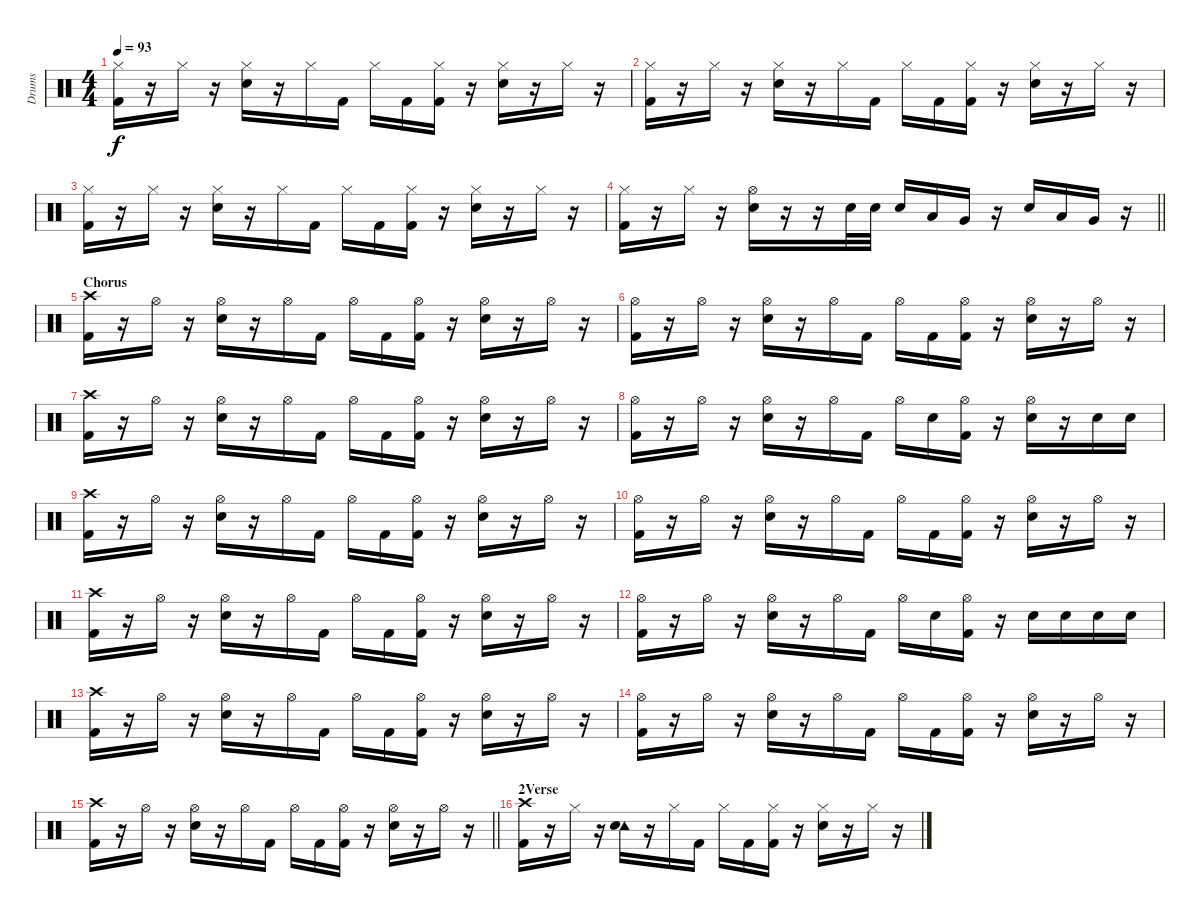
\track ("Drums" "Drums") {instrument percussion}
\staff {score}
\articulation defaults
\ts (4 4)
\tempo 93
\clef neutral
\ks c
("Hi-Hat (closed)" "Kick (hit) 2").16{dy f} r.16 "Hi-Hat (closed)".16 r.16 ("Hi-Hat (closed)" "Electric Snare (hit)").16 r.16 "Hi-Hat (closed)".16 "Kick (hit) 2".16 "Hi-Hat (closed)".16 "Kick (hit) 2".16 ("Hi-Hat (closed)" "Kick (hit) 2").16 r.16 ("Hi-Hat (closed)" "Electric Snare (hit)").16 r.16 "Hi-Hat (closed)".16 r.16 |
("Hi-Hat (closed)" "Kick (hit) 2").16 r.16 "Hi-Hat (closed)".16 r.16 ("Hi-Hat (closed)" "Electric Snare (hit)").16 r.16 "Hi-Hat (closed)".16 "Kick (hit) 2".16 "Hi-Hat (closed)".16 "Kick (hit) 2".16 ("Hi-Hat (closed)" "Kick (hit) 2").16 r.16 ("Hi-Hat (closed)" "Electric Snare (hit)").16 r.16 "Hi-Hat (closed)".16 r.16 |
("Hi-Hat (closed)" "Kick (hit) 2").16 r.16 "Hi-Hat (closed)".16 r.16 ("Hi-Hat (closed)" "Electric Snare (hit)").16 r.16 "Hi-Hat (closed)".16 "Kick (hit) 2".16 "Hi-Hat (closed)".16 "Kick (hit) 2".16 ("Hi-Hat (closed)" "Kick (hit) 2").16 r.16 ("Hi-Hat (closed)" "Electric Snare (hit)").16 r.16 "Hi-Hat (closed)".16 r.16 |
\barLineRight lightlight
("Hi-Hat (closed)" "Kick (hit) 2").16 r.16 "Hi-Hat (closed)".16 r.16 ("Hi-Hat (open)" "Electric Snare (hit)").16 r.16 r.16 "Electric Snare (hit)".32 "Electric Snare (hit)".32 "Electric Snare (hit)".16 "Low Tom (hit)".16 "Very Low Tom (hit)".16 r.16 "Electric Snare (hit)".16 "Low Tom (hit)".16 "Very Low Tom (hit)".16 r.16 |
\section ("" "Chorus")
("Crash high (hit)" "Kick (hit) 2").16 r.16 "Hi-Hat (open)".16 r.16 ("Hi-Hat (open)" "Electric Snare (hit)").16 r.16 "Hi-Hat (open)".16 "Kick (hit) 2".16 "Hi-Hat (open)".16 "Kick (hit) 2".16 ("Hi-Hat (open)" "Kick (hit) 2").16 r.16 ("Hi-Hat (open)" "Electric Snare (hit)").16 r.16 "Hi-Hat (open)".16 r.16 |
("Hi-Hat (open)" "Kick (hit) 2").16 r.16 "Hi-Hat (open)".16 r.16 ("Hi-Hat (open)" "Electric Snare (hit)").16 r.16 "Hi-Hat (open)".16 "Kick (hit) 2".16 "Hi-Hat (open)".16 "Kick (hit) 2".16 ("Hi-Hat (open)" "Kick (hit) 2").16 r.16 ("Hi-Hat (open)" "Electric Snare (hit)").16 r.16 "Hi-Hat (open)".16 r.16 |
("Crash high (hit)" "Kick (hit) 2").16 r.16 "Hi-Hat (open)".16 r.16 ("Hi-Hat (open)" "Electric Snare (hit)").16 r.16 "Hi-Hat (open)".16 "Kick (hit) 2".16 "Hi-Hat (open)".16 "Kick (hit) 2".16 ("Hi-Hat (open)" "Kick (hit) 2").16 r.16 ("Hi-Hat (open)" "Electric Snare (hit)").16 r.16 "Hi-Hat (open)".16 r.16 |
("Hi-Hat (open)" "Kick (hit) 2").16 r.16 "Hi-Hat (open)".16 r.16 ("Hi-Hat (open)" "Electric Snare (hit)").16 r.16 "Hi-Hat (open)".16 "Kick (hit) 2".16 "Hi-Hat (open)".16 "Electric Snare (hit)".16 ("Hi-Hat (open)" "Kick (hit) 2").16 r.16 ("Hi-Hat (open)" "Electric Snare (hit)").16 r.16 "Electric Snare (hit)".16 "Electric Snare (hit)".16 |
("Crash high (hit)" "Kick (hit) 2").16 r.16 "Hi-Hat (open)".16 r.16 ("Hi-Hat (open)" "Electric Snare (hit)").16 r.16 "Hi-Hat (open)".16 "Kick (hit) 2".16 "Hi-Hat (open)".16 "Kick (hit) 2".16 ("Hi-Hat (open)" "Kick (hit) 2").16 r.16 ("Hi-Hat (open)" "Electric Snare (hit)").16 r.16 "Hi-Hat (open)".16 r.16 |
("Hi-Hat (open)" "Kick (hit) 2").16 r.16 "Hi-Hat (open)".16 r.16 ("Hi-Hat (open)" "Electric Snare (hit)").16 r.16 "Hi-Hat (open)".16 "Kick (hit) 2".16 "Hi-Hat (open)".16 "Kick (hit) 2".16 ("Hi-Hat (open)" "Kick (hit) 2").16 r.16 ("Hi-Hat (open)" "Electric Snare (hit)").16 r.16 "Hi-Hat (open)".16 r.16 |
("Crash high (hit)" "Kick (hit) 2").16 r.16 "Hi-Hat (open)".16 r.16 ("Hi-Hat (open)" "Electric Snare (hit)").16 r.16 "Hi-Hat (open)".16 "Kick (hit) 2".16 "Hi-Hat (open)".16 "Kick (hit) 2".16 ("Hi-Hat (open)" "Kick (hit) 2").16 r.16 ("Hi-Hat (open)" "Electric Snare (hit)").16 r.16 "Hi-Hat (open)".16 r.16 |
("Hi-Hat (open)" "Kick (hit) 2").16 r.16 "Hi-Hat (open)".16 r.16 ("Hi-Hat (open)" "Electric Snare (hit)").16 r.16 "Hi-Hat (open)".16 "Kick (hit) 2".16 "Hi-Hat (open)".16 "Electric Snare (hit)".16 ("Hi-Hat (open)" "Kick (hit) 2").16 r.16 "Electric Snare (hit)".16 "Electric Snare (hit)".16 "Electric Snare (hit)".16 "Electric Snare (hit)".16 |
("Crash high (hit)" "Kick (hit) 2").16 r.16 "Hi-Hat (open)".16 r.16 ("Hi-Hat (open)" "Electric Snare (hit)").16 r.16 "Hi-Hat (open)".16 "Kick (hit) 2".16 "Hi-Hat (open)".16 "Kick (hit) 2".16 ("Hi-Hat (open)" "Kick (hit) 2").16 r.16 ("Hi-Hat (open)" "Electric Snare (hit)").16 r.16 "Hi-Hat (open)".16 r.16 |
("Hi-Hat (open)" "Kick (hit) 2").16 r.16 "Hi-Hat (open)".16 r.16 ("Hi-Hat (open)" "Electric Snare (hit)").16 r.16 "Hi-Hat (open)".16 "Kick (hit) 2".16 "Hi-Hat (open)".16 "Kick (hit) 2".16 ("Hi-Hat (open)" "Kick (hit) 2").16 r.16 ("Hi-Hat (open)" "Electric Snare (hit)").16 r.16 "Hi-Hat (open)".16 r.16 |
\barLineRight lightlight
("Crash high (hit)" "Kick (hit) 2").16 r.16 "Hi-Hat (open)".16 r.16 ("Hi-Hat (open)" "Electric Snare (hit)").16 r.16 "Hi-Hat (open)".16 "Kick (hit) 2".16 "Hi-Hat (open)".16 "Kick (hit) 2".16 ("Hi-Hat (open)" "Kick (hit) 2").16 r.16 ("Hi-Hat (open)" "Electric Snare (hit)").16 r.16 "Hi-Hat (open)".16 r.16 |
\section ("" "2Verse")
("Crash high (hit)" "Kick (hit) 2").16 r.16 "Hi-Hat (closed)".16 r.16 ("Tambourine (hit)" "Electric Snare (hit)").16 r.16 "Hi-Hat (closed)".16 "Kick (hit) 2".16 "Hi-Hat (closed)".16 "Kick (hit) 2".16 ("Hi-Hat (closed)" "Kick (hit) 2").16 r.16 ("Hi-Hat (closed)" "Electric Snare (hit)").16 r.16 "Hi-Hat (closed)".16 r.16
